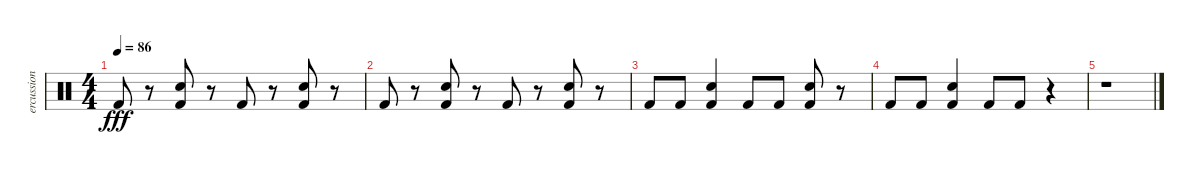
\track ("ercussion" "ercussion") {instrument percussion}
\staff {score}
\articulation defaults
\ts (4 4)
\tempo 86
\clef neutral
\ks c "Kick (hit) 2".8{dy fff}
r.8 ("Snare (hit) 2" "Kick (hit) 2").8 r.8 "Kick (hit) 2".8 r.8 ("Snare (hit) 2" "Kick (hit) 2").8 r.8 |
"Kick (hit) 2".8 r.8 ("Snare (hit) 2" "Kick (hit) 2").8 r.8 "Kick (hit) 2".8 r.8 ("Snare (hit) 2" "Kick (hit) 2").8 r.8 |
"Kick (hit) 2".8 "Kick (hit) 2".8 ("Snare (hit) 2" "Kick (hit) 2").4 "Kick (hit) 2".8 "Kick (hit) 2".8 ("Snare (hit) 2" "Kick (hit) 2").8 r.8 |
"Kick (hit) 2".8 "Kick (hit) 2".8 ("Snare (hit) 2" "Kick (hit) 2").4 "Kick (hit) 2".8 "Kick (hit) 2".8 r.4 |
r.1
